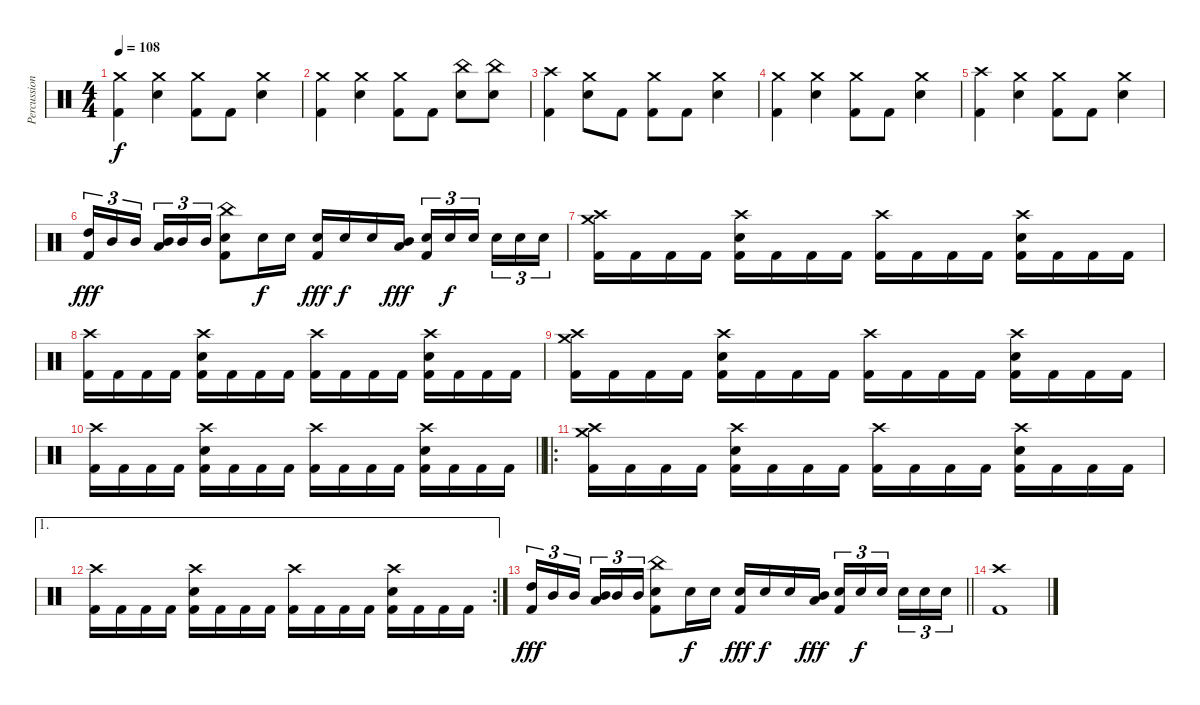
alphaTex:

\track ("Percussions" "Percussion") {instrument percussion}
\staff {score}
\articulation defaults
\ts (4 4)
\tempo 108
\clef neutral
\ks c
("Crash medium (hit)" "Kick (hit) 2").4{dy f} ("Crash medium (hit)" "Electric Snare (hit)").4 ("Crash medium (hit)" "Kick (hit) 2").8 "Kick (hit) 2".8 ("Crash medium (hit)" "Electric Snare (hit)").4 |
("Crash medium (hit)" "Kick (hit) 2").4 ("Crash medium (hit)" "Electric Snare (hit)").4 ("Crash medium (hit)" "Kick (hit) 2").8 "Kick (hit) 2".8 ("China (hit)" "Electric Snare (hit)").8 ("China (hit)" "Electric Snare (hit)").8 |
("Crash high (hit)" "Kick (hit) 2").4 ("Crash medium (hit)" "Electric Snare (hit)").8 "Kick (hit) 2".8 ("Crash medium (hit)" "Kick (hit) 2").8 "Kick (hit) 2".8 ("Crash medium (hit)" "Electric Snare (hit)").4 |
("Crash medium (hit)" "Kick (hit) 2").4 ("Crash medium (hit)" "Electric Snare (hit)").4 ("Crash medium (hit)" "Kick (hit) 2").8 "Kick (hit) 2".8 ("Crash medium (hit)" "Electric Snare (hit)").4 |
("Crash high (hit)" "Kick (hit) 2").4 ("Crash medium (hit)" "Electric Snare (hit)").4 ("Crash medium (hit)" "Kick (hit) 2").8 "Kick (hit) 2".8 ("Crash medium (hit)" "Electric Snare (hit)").4 |
("High Tom (hit)" "Kick (hit) 2").16{tu (3 2) dy fff} "Mid Tom (hit)".16{tu (3 2)} "Mid Tom (hit)".16{tu (3 2) beam splitsecondary} ("Low Tom (hit)" "Mid Tom (hit)").16{tu (3 2)} "Mid Tom (hit)".16{tu (3 2)} "Mid Tom (hit)".16{tu (3 2)} ("China (hit)" "Electric Snare (hit)" "Kick (hit) 2").8 "Electric Snare (hit)".16{dy f} "Electric Snare (hit)".16 ("Electric Snare (hit)" "Kick (hit) 2").16{dy fff} "Electric Snare (hit)".16{dy f} "Electric Snare (hit)".16 ("Mid Tom (hit)" "Low Tom (hit)").16{dy fff} ("Electric Snare (hit)" "Kick (hit) 2").16{tu (3 2)} "Electric Snare (hit)".16{tu (3 2) dy f} "Electric Snare (hit)".16{tu (3 2) beam splitsecondary} "Electric Snare (hit)".16{tu (3 2)} "Electric Snare (hit)".16{tu (3 2)} "Electric Snare (hit)".16{tu (3 2)} |
("Crash high (hit)" "Crash medium (hit)" "Kick (hit) 2").16 "Kick (hit) 2".16 "Kick (hit) 2".16 "Kick (hit) 2".16 ("Crash high (hit)" "Electric Snare (hit)" "Kick (hit) 2").16 "Kick (hit) 2".16 "Kick (hit) 2".16 "Kick (hit) 2".16 ("Crash high (hit)" "Kick (hit) 2").16 "Kick (hit) 2".16 "Kick (hit) 2".16 "Kick (hit) 2".16 ("Crash high (hit)" "Electric Snare (hit)" "Kick (hit) 2").16 "Kick (hit) 2".16 "Kick (hit) 2".16 "Kick (hit) 2".16 |
("Crash high (hit)" "Kick (hit) 2").16 "Kick (hit) 2".16 "Kick (hit) 2".16 "Kick (hit) 2".16 ("Crash high (hit)" "Electric Snare (hit)" "Kick (hit) 2").16 "Kick (hit) 2".16 "Kick (hit) 2".16 "Kick (hit) 2".16 ("Crash high (hit)" "Kick (hit) 2").16 "Kick (hit) 2".16 "Kick (hit) 2".16 "Kick (hit) 2".16 ("Crash high (hit)" "Electric Snare (hit)" "Kick (hit) 2").16 "Kick (hit) 2".16 "Kick (hit) 2".16 "Kick (hit) 2".16 |
("Crash high (hit)" "Crash medium (hit)" "Kick (hit) 2").16 "Kick (hit) 2".16 "Kick (hit) 2".16 "Kick (hit) 2".16 ("Crash high (hit)" "Electric Snare (hit)" "Kick (hit) 2").16 "Kick (hit) 2".16 "Kick (hit) 2".16 "Kick (hit) 2".16 ("Crash high (hit)" "Kick (hit) 2").16 "Kick (hit) 2".16 "Kick (hit) 2".16 "Kick (hit) 2".16 ("Crash high (hit)" "Electric Snare (hit)" "Kick (hit) 2").16 "Kick (hit) 2".16 "Kick (hit) 2".16 "Kick (hit) 2".16 |
\barLineRight lightlight
("Crash high (hit)" "Kick (hit) 2").16 "Kick (hit) 2".16 "Kick (hit) 2".16 "Kick (hit) 2".16 ("Crash high (hit)" "Electric Snare (hit)" "Kick (hit) 2").16 "Kick (hit) 2".16 "Kick (hit) 2".16 "Kick (hit) 2".16 ("Crash high (hit)" "Kick (hit) 2").16 "Kick (hit) 2".16 "Kick (hit) 2".16 "Kick (hit) 2".16 ("Crash high (hit)" "Electric Snare (hit)" "Kick (hit) 2").16 "Kick (hit) 2".16 "Kick (hit) 2".16 "Kick (hit) 2".16 |
\ro
("Crash high (hit)" "Crash medium (hit)" "Kick (hit) 2").16 "Kick (hit) 2".16 "Kick (hit) 2".16 "Kick (hit) 2".16 ("Crash high (hit)" "Electric Snare (hit)" "Kick (hit) 2").16 "Kick (hit) 2".16 "Kick (hit) 2".16 "Kick (hit) 2".16 ("Crash high (hit)" "Kick (hit) 2").16 "Kick (hit) 2".16 "Kick (hit) 2".16 "Kick (hit) 2".16 ("Crash high (hit)" "Electric Snare (hit)" "Kick (hit) 2").16 "Kick (hit) 2".16 "Kick (hit) 2".16 "Kick (hit) 2".16 |
\ae 1
\rc 2
("Crash high (hit)" "Kick (hit) 2").16 "Kick (hit) 2".16 "Kick (hit) 2".16 "Kick (hit) 2".16 ("Crash high (hit)" "Electric Snare (hit)" "Kick (hit) 2").16 "Kick (hit) 2".16 "Kick (hit) 2".16 "Kick (hit) 2".16 ("Crash high (hit)" "Kick (hit) 2").16 "Kick (hit) 2".16 "Kick (hit) 2".16 "Kick (hit) 2".16 ("Crash high (hit)" "Electric Snare (hit)" "Kick (hit) 2").16 "Kick (hit) 2".16 "Kick (hit) 2".16 "Kick (hit) 2".16 |
\barLineRight lightlight
("High Tom (hit)" "Kick (hit) 2").16{tu (3 2) dy fff} "Mid Tom (hit)".16{tu (3 2)} "Mid Tom (hit)".16{tu (3 2) beam splitsecondary} ("Low Tom (hit)" "Mid Tom (hit)").16{tu (3 2)} "Mid Tom (hit)".16{tu (3 2)} "Mid Tom (hit)".16{tu (3 2)} ("China (hit)" "Electric Snare (hit)" "Kick (hit) 2").8 "Electric Snare (hit)".16{dy f} "Electric Snare (hit)".16 ("Electric Snare (hit)" "Kick (hit) 2").16{dy fff} "Electric Snare (hit)".16{dy f} "Electric Snare (hit)".16 ("Mid Tom (hit)" "Low Tom (hit)").16{dy fff} ("Electric Snare (hit)" "Kick (hit) 2").16{tu (3 2)} "Electric Snare (hit)".16{tu (3 2) dy f} "Electric Snare (hit)".16{tu (3 2) beam splitsecondary} "Electric Snare (hit)".16{tu (3 2)} "Electric Snare (hit)".16{tu (3 2)} "Electric Snare (hit)".16{tu (3 2)} |
("Crash high (hit)" "Kick (hit) 2").1
